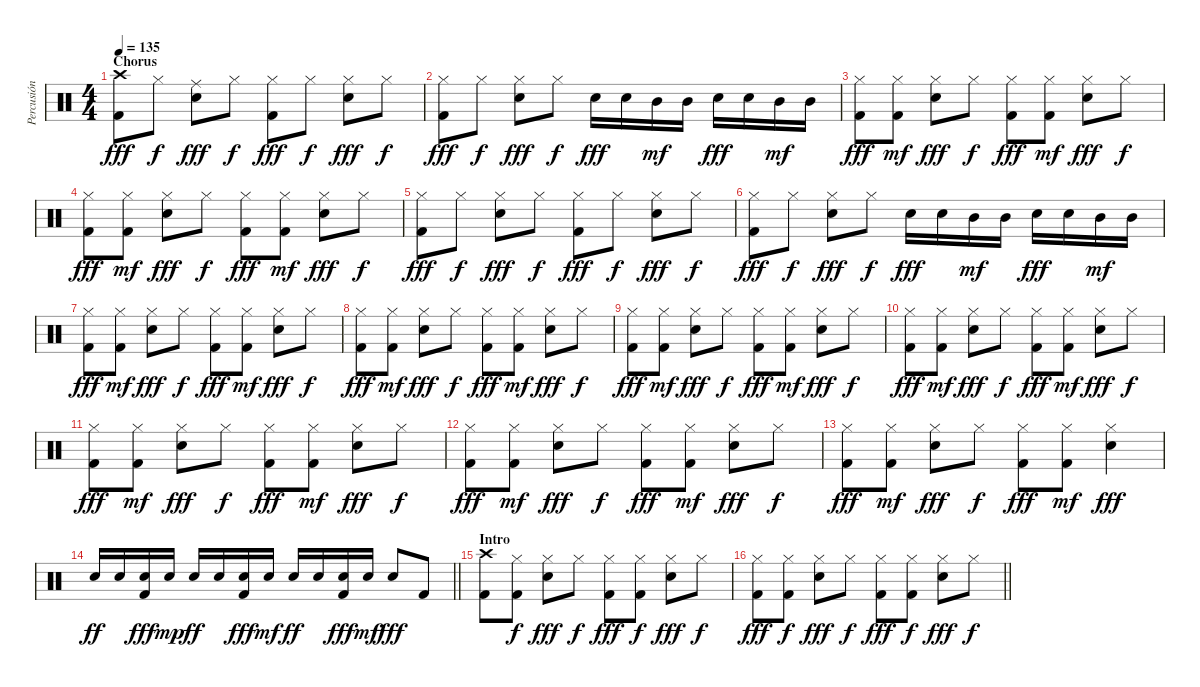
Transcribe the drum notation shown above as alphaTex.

\track ("Percusión" "Percusión") {instrument percussion}
\staff {score}
\articulation defaults
\ts (4 4)
\section ("" "Chorus")
\tempo 135
\clef neutral
\ks c
("Crash high (hit)" "Kick (hit) 2").8{dy fff} "Hi-Hat (closed)".8{dy f} ("Ride (middle)" "Electric Snare (hit)").8{dy fff} "Hi-Hat (closed)".8{dy f} ("Hi-Hat (closed)" "Kick (hit) 2").8{dy fff} "Hi-Hat (closed)".8{dy f} ("Hi-Hat (closed)" "Electric Snare (hit)").8{dy fff} "Hi-Hat (closed)".8{dy f} |
("Hi-Hat (closed)" "Kick (hit) 2").8{dy fff} "Hi-Hat (closed)".8{dy f} ("Hi-Hat (closed)" "Electric Snare (hit)").8{dy fff} "Hi-Hat (closed)".8{dy f} "Electric Snare (hit)".16{dy fff} "Electric Snare (hit)".16 "Mid Tom (hit)".16{dy mf} "Mid Tom (hit)".16 "Electric Snare (hit)".16{dy fff} "Electric Snare (hit)".16 "Mid Tom (hit)".16{dy mf} "Mid Tom (hit)".16 |
("Hi-Hat (closed)" "Kick (hit) 2").8{dy fff} ("Hi-Hat (closed)" "Kick (hit) 2").8{dy mf} ("Hi-Hat (closed)" "Electric Snare (hit)").8{dy fff} "Hi-Hat (closed)".8{dy f} ("Hi-Hat (closed)" "Kick (hit) 2").8{dy fff} ("Hi-Hat (closed)" "Kick (hit) 2").8{dy mf} ("Hi-Hat (closed)" "Electric Snare (hit)").8{dy fff} "Hi-Hat (closed)".8{dy f} |
("Hi-Hat (closed)" "Kick (hit) 2").8{dy fff} ("Hi-Hat (closed)" "Kick (hit) 2").8{dy mf} ("Hi-Hat (closed)" "Electric Snare (hit)").8{dy fff} "Hi-Hat (closed)".8{dy f} ("Hi-Hat (closed)" "Kick (hit) 2").8{dy fff} ("Hi-Hat (closed)" "Kick (hit) 2").8{dy mf} ("Hi-Hat (closed)" "Electric Snare (hit)").8{dy fff} "Hi-Hat (closed)".8{dy f} |
("Hi-Hat (closed)" "Kick (hit) 2").8{dy fff} "Hi-Hat (closed)".8{dy f} ("Hi-Hat (closed)" "Electric Snare (hit)").8{dy fff} "Hi-Hat (closed)".8{dy f} ("Hi-Hat (closed)" "Kick (hit) 2").8{dy fff} "Hi-Hat (closed)".8{dy f} ("Hi-Hat (closed)" "Electric Snare (hit)").8{dy fff} "Hi-Hat (closed)".8{dy f} |
("Hi-Hat (closed)" "Kick (hit) 2").8{dy fff} "Hi-Hat (closed)".8{dy f} ("Hi-Hat (closed)" "Electric Snare (hit)").8{dy fff} "Hi-Hat (closed)".8{dy f} "Electric Snare (hit)".16{dy fff} "Electric Snare (hit)".16 "Mid Tom (hit)".16{dy mf} "Mid Tom (hit)".16 "Electric Snare (hit)".16{dy fff} "Electric Snare (hit)".16 "Mid Tom (hit)".16{dy mf} "Mid Tom (hit)".16 |
("Hi-Hat (closed)" "Kick (hit) 2").8{dy fff} ("Hi-Hat (closed)" "Kick (hit) 2").8{dy mf} ("Hi-Hat (closed)" "Electric Snare (hit)").8{dy fff} "Hi-Hat (closed)".8{dy f} ("Hi-Hat (closed)" "Kick (hit) 2").8{dy fff} ("Hi-Hat (closed)" "Kick (hit) 2").8{dy mf} ("Hi-Hat (closed)" "Electric Snare (hit)").8{dy fff} "Hi-Hat (closed)".8{dy f} |
("Hi-Hat (closed)" "Kick (hit) 2").8{dy fff} ("Hi-Hat (closed)" "Kick (hit) 2").8{dy mf} ("Hi-Hat (closed)" "Electric Snare (hit)").8{dy fff} "Hi-Hat (closed)".8{dy f} ("Hi-Hat (closed)" "Kick (hit) 2").8{dy fff} ("Hi-Hat (closed)" "Kick (hit) 2").8{dy mf} ("Hi-Hat (closed)" "Electric Snare (hit)").8{dy fff} "Hi-Hat (closed)".8{dy f} |
("Hi-Hat (closed)" "Kick (hit) 2").8{dy fff} ("Hi-Hat (closed)" "Kick (hit) 2").8{dy mf} ("Hi-Hat (closed)" "Electric Snare (hit)").8{dy fff} "Hi-Hat (closed)".8{dy f} ("Hi-Hat (closed)" "Kick (hit) 2").8{dy fff} ("Hi-Hat (closed)" "Kick (hit) 2").8{dy mf} ("Hi-Hat (closed)" "Electric Snare (hit)").8{dy fff} "Hi-Hat (closed)".8{dy f} |
("Hi-Hat (closed)" "Kick (hit) 2").8{dy fff} ("Hi-Hat (closed)" "Kick (hit) 2").8{dy mf} ("Hi-Hat (closed)" "Electric Snare (hit)").8{dy fff} "Hi-Hat (closed)".8{dy f} ("Hi-Hat (closed)" "Kick (hit) 2").8{dy fff} ("Hi-Hat (closed)" "Kick (hit) 2").8{dy mf} ("Hi-Hat (closed)" "Electric Snare (hit)").8{dy fff} "Hi-Hat (closed)".8{dy f} |
("Hi-Hat (closed)" "Kick (hit) 2").8{dy fff} ("Hi-Hat (closed)" "Kick (hit) 2").8{dy mf} ("Hi-Hat (closed)" "Electric Snare (hit)").8{dy fff} "Hi-Hat (closed)".8{dy f} ("Hi-Hat (closed)" "Kick (hit) 2").8{dy fff} ("Hi-Hat (closed)" "Kick (hit) 2").8{dy mf} ("Hi-Hat (closed)" "Electric Snare (hit)").8{dy fff} "Hi-Hat (closed)".8{dy f} |
("Hi-Hat (closed)" "Kick (hit) 2").8{dy fff} ("Hi-Hat (closed)" "Kick (hit) 2").8{dy mf} ("Hi-Hat (closed)" "Electric Snare (hit)").8{dy fff} "Hi-Hat (closed)".8{dy f} ("Hi-Hat (closed)" "Kick (hit) 2").8{dy fff} ("Hi-Hat (closed)" "Kick (hit) 2").8{dy mf} ("Hi-Hat (closed)" "Electric Snare (hit)").8{dy fff} "Hi-Hat (closed)".8{dy f} |
("Hi-Hat (closed)" "Kick (hit) 2").8{dy fff} ("Hi-Hat (closed)" "Kick (hit) 2").8{dy mf} ("Hi-Hat (closed)" "Electric Snare (hit)").8{dy fff} "Hi-Hat (closed)".8{dy f} ("Hi-Hat (closed)" "Kick (hit) 2").8{dy fff} ("Hi-Hat (closed)" "Kick (hit) 2").8{dy mf} ("Hi-Hat (closed)" "Electric Snare (hit)").4{dy fff} |
\barLineRight lightlight "Electric Snare (hit)".16{dy ff} "Electric Snare (hit)".16
("Electric Snare (hit)" "Kick (hit) 2").16{dy fff} "Electric Snare (hit)".16{dy mp} "Electric Snare (hit)".16{dy ff} "Electric Snare (hit)".16 ("Electric Snare (hit)" "Kick (hit) 2").16{dy fff} "Electric Snare (hit)".16{dy mf} "Electric Snare (hit)".16{dy ff} "Electric Snare (hit)".16 ("Electric Snare (hit)" "Kick (hit) 2").16{dy fff} "Electric Snare (hit)".16{dy mf} "Electric Snare (hit)".8{dy fff} "Kick (hit) 2".8 |
\section ("" "Intro")
("Crash high (hit)" "Kick (hit) 2").8 ("Hi-Hat (closed)" "Kick (hit) 2").8{dy f} ("Hi-Hat (closed)" "Electric Snare (hit)").8{dy fff} "Hi-Hat (closed)".8{dy f} ("Hi-Hat (closed)" "Kick (hit) 2").8{dy fff} ("Hi-Hat (closed)" "Kick (hit) 2").8{dy f} ("Hi-Hat (closed)" "Electric Snare (hit)").8{dy fff} "Hi-Hat (closed)".8{dy f} |
\barLineRight lightlight
("Hi-Hat (closed)" "Kick (hit) 2").8{dy fff} ("Hi-Hat (closed)" "Kick (hit) 2").8{dy f} ("Hi-Hat (closed)" "Electric Snare (hit)").8{dy fff} "Hi-Hat (closed)".8{dy f} ("Hi-Hat (closed)" "Kick (hit) 2").8{dy fff} ("Hi-Hat (closed)" "Kick (hit) 2").8{dy f} ("Hi-Hat (closed)" "Electric Snare (hit)").8{dy fff} "Hi-Hat (closed)".8{dy f}
